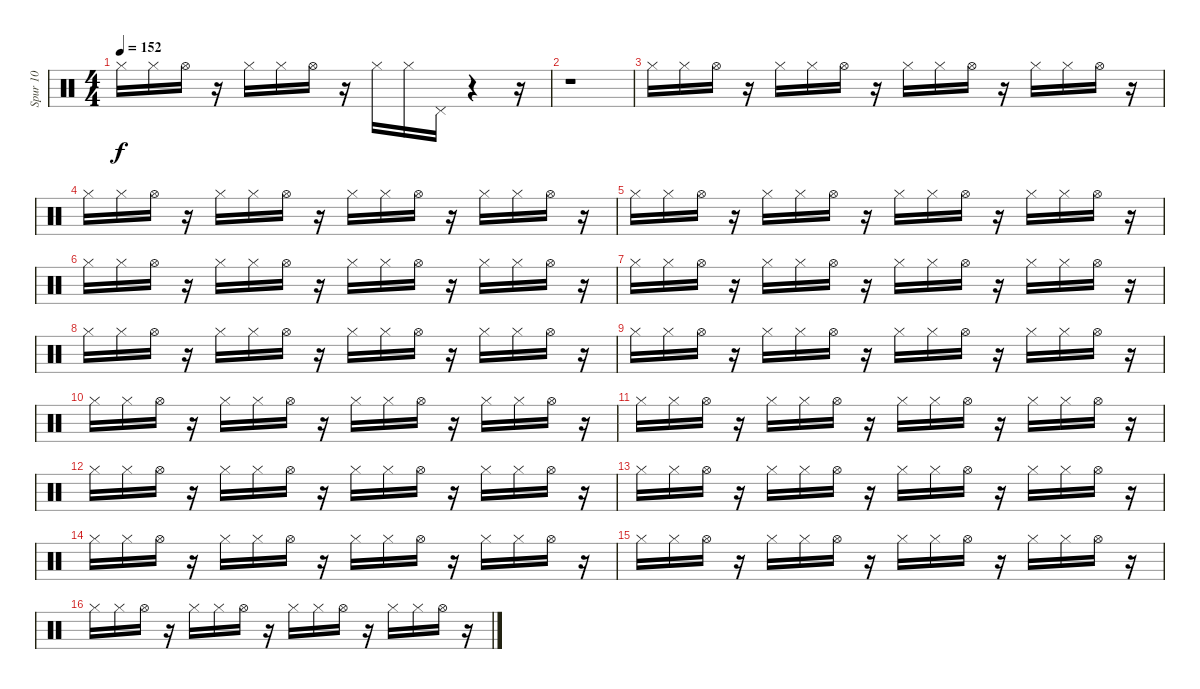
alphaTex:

\track ("Spur 10" "Spur 10") {instrument percussion}
\staff {score}
\articulation defaults
\ts (4 4)
\tempo 152
\clef neutral
\ks c "Hi-Hat (closed)".16{dy f} "Hi-Hat (closed)".16 "Hi-Hat (open)".16
r.16 "Hi-Hat (closed)".16 "Hi-Hat (closed)".16 "Hi-Hat (open)".16 r.16 "Hi-Hat (closed)".16 "Hi-Hat (closed)".16 "Pedal Hi-Hat (hit)".16 r.4 r.16 |
r.1 |
"Hi-Hat (closed)".16 "Hi-Hat (closed)".16 "Hi-Hat (open)".16 r.16 "Hi-Hat (closed)".16 "Hi-Hat (closed)".16 "Hi-Hat (open)".16 r.16 "Hi-Hat (closed)".16 "Hi-Hat (closed)".16 "Hi-Hat (open)".16 r.16 "Hi-Hat (closed)".16 "Hi-Hat (closed)".16 "Hi-Hat (open)".16 r.16 |
"Hi-Hat (closed)".16 "Hi-Hat (closed)".16 "Hi-Hat (open)".16 r.16 "Hi-Hat (closed)".16 "Hi-Hat (closed)".16 "Hi-Hat (open)".16 r.16 "Hi-Hat (closed)".16 "Hi-Hat (closed)".16 "Hi-Hat (open)".16 r.16 "Hi-Hat (closed)".16 "Hi-Hat (closed)".16 "Hi-Hat (open)".16 r.16 |
"Hi-Hat (closed)".16 "Hi-Hat (closed)".16 "Hi-Hat (open)".16 r.16 "Hi-Hat (closed)".16 "Hi-Hat (closed)".16 "Hi-Hat (open)".16 r.16 "Hi-Hat (closed)".16 "Hi-Hat (closed)".16 "Hi-Hat (open)".16 r.16 "Hi-Hat (closed)".16 "Hi-Hat (closed)".16 "Hi-Hat (open)".16 r.16 |
"Hi-Hat (closed)".16 "Hi-Hat (closed)".16 "Hi-Hat (open)".16 r.16 "Hi-Hat (closed)".16 "Hi-Hat (closed)".16 "Hi-Hat (open)".16 r.16 "Hi-Hat (closed)".16 "Hi-Hat (closed)".16 "Hi-Hat (open)".16 r.16 "Hi-Hat (closed)".16 "Hi-Hat (closed)".16 "Hi-Hat (open)".16 r.16 |
"Hi-Hat (closed)".16 "Hi-Hat (closed)".16 "Hi-Hat (open)".16 r.16 "Hi-Hat (closed)".16 "Hi-Hat (closed)".16 "Hi-Hat (open)".16 r.16 "Hi-Hat (closed)".16 "Hi-Hat (closed)".16 "Hi-Hat (open)".16 r.16 "Hi-Hat (closed)".16 "Hi-Hat (closed)".16 "Hi-Hat (open)".16 r.16 |
"Hi-Hat (closed)".16 "Hi-Hat (closed)".16 "Hi-Hat (open)".16 r.16 "Hi-Hat (closed)".16 "Hi-Hat (closed)".16 "Hi-Hat (open)".16 r.16 "Hi-Hat (closed)".16 "Hi-Hat (closed)".16 "Hi-Hat (open)".16 r.16 "Hi-Hat (closed)".16 "Hi-Hat (closed)".16 "Hi-Hat (open)".16 r.16 |
"Hi-Hat (closed)".16 "Hi-Hat (closed)".16 "Hi-Hat (open)".16 r.16 "Hi-Hat (closed)".16 "Hi-Hat (closed)".16 "Hi-Hat (open)".16 r.16 "Hi-Hat (closed)".16 "Hi-Hat (closed)".16 "Hi-Hat (open)".16 r.16 "Hi-Hat (closed)".16 "Hi-Hat (closed)".16 "Hi-Hat (open)".16 r.16 |
"Hi-Hat (closed)".16 "Hi-Hat (closed)".16 "Hi-Hat (open)".16 r.16 "Hi-Hat (closed)".16 "Hi-Hat (closed)".16 "Hi-Hat (open)".16 r.16 "Hi-Hat (closed)".16 "Hi-Hat (closed)".16 "Hi-Hat (open)".16 r.16 "Hi-Hat (closed)".16 "Hi-Hat (closed)".16 "Hi-Hat (open)".16 r.16 |
"Hi-Hat (closed)".16 "Hi-Hat (closed)".16 "Hi-Hat (open)".16 r.16 "Hi-Hat (closed)".16 "Hi-Hat (closed)".16 "Hi-Hat (open)".16 r.16 "Hi-Hat (closed)".16 "Hi-Hat (closed)".16 "Hi-Hat (open)".16 r.16 "Hi-Hat (closed)".16 "Hi-Hat (closed)".16 "Hi-Hat (open)".16 r.16 |
"Hi-Hat (closed)".16 "Hi-Hat (closed)".16 "Hi-Hat (open)".16 r.16 "Hi-Hat (closed)".16 "Hi-Hat (closed)".16 "Hi-Hat (open)".16 r.16 "Hi-Hat (closed)".16 "Hi-Hat (closed)".16 "Hi-Hat (open)".16 r.16 "Hi-Hat (closed)".16 "Hi-Hat (closed)".16 "Hi-Hat (open)".16 r.16 |
"Hi-Hat (closed)".16 "Hi-Hat (closed)".16 "Hi-Hat (open)".16 r.16 "Hi-Hat (closed)".16 "Hi-Hat (closed)".16 "Hi-Hat (open)".16 r.16 "Hi-Hat (closed)".16 "Hi-Hat (closed)".16 "Hi-Hat (open)".16 r.16 "Hi-Hat (closed)".16 "Hi-Hat (closed)".16 "Hi-Hat (open)".16 r.16 |
"Hi-Hat (closed)".16 "Hi-Hat (closed)".16 "Hi-Hat (open)".16 r.16 "Hi-Hat (closed)".16 "Hi-Hat (closed)".16 "Hi-Hat (open)".16 r.16 "Hi-Hat (closed)".16 "Hi-Hat (closed)".16 "Hi-Hat (open)".16 r.16 "Hi-Hat (closed)".16 "Hi-Hat (closed)".16 "Hi-Hat (open)".16 r.16 |
"Hi-Hat (closed)".16 "Hi-Hat (closed)".16 "Hi-Hat (open)".16 r.16 "Hi-Hat (closed)".16 "Hi-Hat (closed)".16 "Hi-Hat (open)".16 r.16 "Hi-Hat (closed)".16 "Hi-Hat (closed)".16 "Hi-Hat (open)".16 r.16 "Hi-Hat (closed)".16 "Hi-Hat (closed)".16 "Hi-Hat (open)".16 r.16 |
"Hi-Hat (closed)".16 "Hi-Hat (closed)".16 "Hi-Hat (open)".16 r.16 "Hi-Hat (closed)".16 "Hi-Hat (closed)".16 "Hi-Hat (open)".16 r.16 "Hi-Hat (closed)".16 "Hi-Hat (closed)".16 "Hi-Hat (open)".16 r.16 "Hi-Hat (closed)".16 "Hi-Hat (closed)".16 "Hi-Hat (open)".16 r.16
